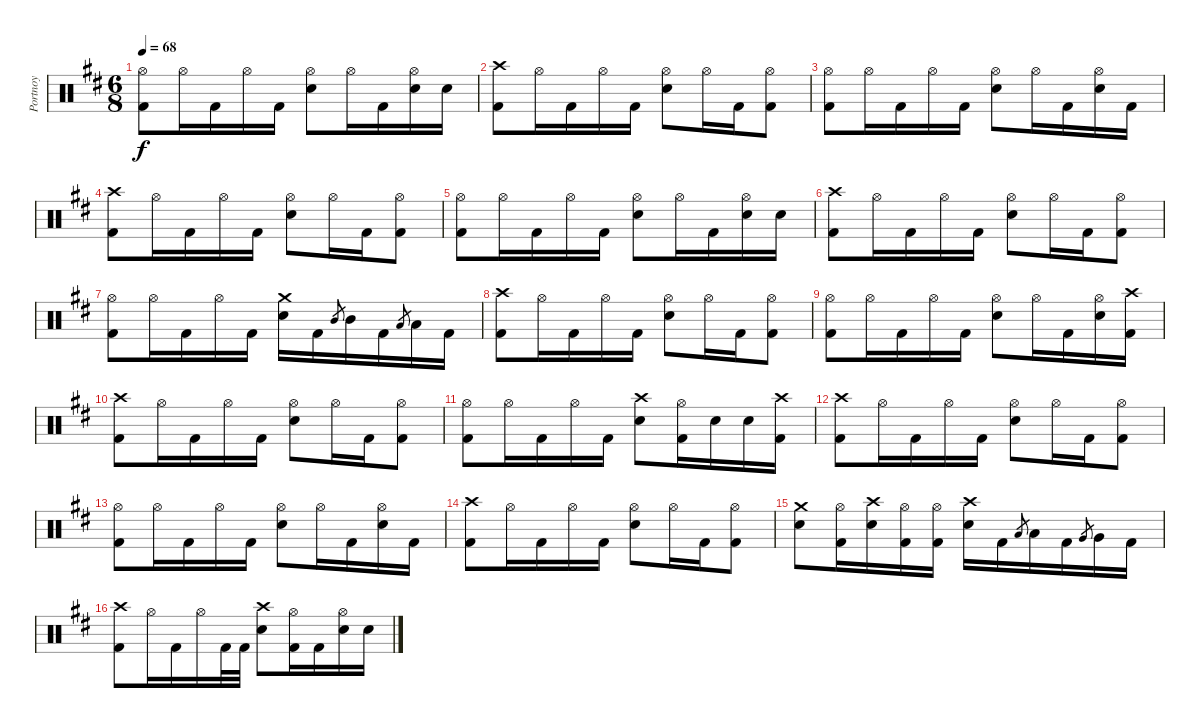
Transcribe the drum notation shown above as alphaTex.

\track ("Portnoy" "Portnoy") {instrument percussion}
\staff {score}
\articulation defaults
\ts (6 8)
\tempo 68
\clef neutral
\ks d
("Hi-Hat (open)" "Kick (hit) 2").8{dy f} "Hi-Hat (open)".16 "Kick (hit) 2".16 "Hi-Hat (open)".16 "Kick (hit) 2".16 ("Hi-Hat (open)" "Snare (hit) 2").8 "Hi-Hat (open)".16 "Kick (hit) 2".16 ("Hi-Hat (open)" "Snare (hit) 2").16 "Snare (hit) 2".16 |
("Crash high (hit)" "Kick (hit) 2").8 "Hi-Hat (open)".16 "Kick (hit) 2".16 "Hi-Hat (open)".16 "Kick (hit) 2".16 ("Hi-Hat (open)" "Snare (hit) 2").8 "Hi-Hat (open)".16 "Kick (hit) 2".16 ("Hi-Hat (open)" "Kick (hit) 2").8 |
("Hi-Hat (open)" "Kick (hit) 2").8 "Hi-Hat (open)".16 "Kick (hit) 2".16 "Hi-Hat (open)".16 "Kick (hit) 2".16 ("Hi-Hat (open)" "Snare (hit) 2").8 "Hi-Hat (open)".16 "Kick (hit) 2".16 ("Hi-Hat (open)" "Snare (hit) 2").16 "Kick (hit) 2".16 |
("Crash high (hit)" "Kick (hit) 2").8 "Hi-Hat (open)".16 "Kick (hit) 2".16 "Hi-Hat (open)".16 "Kick (hit) 2".16 ("Hi-Hat (open)" "Snare (hit) 2").8 "Hi-Hat (open)".16 "Kick (hit) 2".16 ("Hi-Hat (open)" "Kick (hit) 2").8 |
("Hi-Hat (open)" "Kick (hit) 2").8 "Hi-Hat (open)".16 "Kick (hit) 2".16 "Hi-Hat (open)".16 "Kick (hit) 2".16 ("Hi-Hat (open)" "Snare (hit) 2").8 "Hi-Hat (open)".16 "Kick (hit) 2".16 ("Hi-Hat (open)" "Snare (hit) 2").16 "Snare (hit) 2".16 |
("Crash high (hit)" "Kick (hit) 2").8 "Hi-Hat (open)".16 "Kick (hit) 2".16 "Hi-Hat (open)".16 "Kick (hit) 2".16 ("Hi-Hat (open)" "Snare (hit) 2").8 "Hi-Hat (open)".16 "Kick (hit) 2".16 ("Hi-Hat (open)" "Kick (hit) 2").8 |
("Hi-Hat (open)" "Kick (hit) 2").8 "Hi-Hat (open)".16 "Kick (hit) 2".16 "Hi-Hat (open)".16 "Kick (hit) 2".16 ("Crash medium (hit)" "Snare (hit) 2").16 "Kick (hit) 2".16 "Mid Tom (hit)".8{gr} "Mid Tom (hit)".16 "Kick (hit) 2".16 "Low Tom (hit)".8{gr} "Low Tom (hit)".16 "Kick (hit) 2".16 |
("Crash high (hit)" "Kick (hit) 2").8 "Hi-Hat (open)".16 "Kick (hit) 2".16 "Hi-Hat (open)".16 "Kick (hit) 2".16 ("Hi-Hat (open)" "Snare (hit) 2").8 "Hi-Hat (open)".16 "Kick (hit) 2".16 ("Hi-Hat (open)" "Kick (hit) 2").8 |
("Hi-Hat (open)" "Kick (hit) 2").8 "Hi-Hat (open)".16 "Kick (hit) 2".16 "Hi-Hat (open)".16 "Kick (hit) 2".16 ("Hi-Hat (open)" "Snare (hit) 2").8 "Hi-Hat (open)".16 "Kick (hit) 2".16 ("Hi-Hat (open)" "Snare (hit) 2").16 ("Kick (hit) 2" "Crash high (hit)").16 |
("Crash high (hit)" "Kick (hit) 2").8 "Hi-Hat (open)".16 "Kick (hit) 2".16 "Hi-Hat (open)".16 "Kick (hit) 2".16 ("Hi-Hat (open)" "Snare (hit) 2").8 "Hi-Hat (open)".16 "Kick (hit) 2".16 ("Hi-Hat (open)" "Kick (hit) 2").8 |
("Hi-Hat (open)" "Kick (hit) 2").8 "Hi-Hat (open)".16 "Kick (hit) 2".16 "Hi-Hat (open)".16 "Kick (hit) 2".16 ("Crash high (hit)" "Snare (hit) 2").8 ("Kick (hit) 2" "Hi-Hat (open)").16 "Snare (hit) 2".16 "Snare (hit) 2".16 ("Kick (hit) 2" "Crash high (hit)").16 |
("Crash high (hit)" "Kick (hit) 2").8 "Hi-Hat (open)".16 "Kick (hit) 2".16 "Hi-Hat (open)".16 "Kick (hit) 2".16 ("Hi-Hat (open)" "Snare (hit) 2").8 "Hi-Hat (open)".16 "Kick (hit) 2".16 ("Hi-Hat (open)" "Kick (hit) 2").8 |
("Hi-Hat (open)" "Kick (hit) 2").8 "Hi-Hat (open)".16 "Kick (hit) 2".16 "Hi-Hat (open)".16 "Kick (hit) 2".16 ("Hi-Hat (open)" "Snare (hit) 2").8 "Hi-Hat (open)".16 "Kick (hit) 2".16 ("Hi-Hat (open)" "Snare (hit) 2").16 "Kick (hit) 2".16 |
("Crash high (hit)" "Kick (hit) 2").8 "Hi-Hat (open)".16 "Kick (hit) 2".16 "Hi-Hat (open)".16 "Kick (hit) 2".16 ("Hi-Hat (open)" "Snare (hit) 2").8 "Hi-Hat (open)".16 "Kick (hit) 2".16 ("Hi-Hat (open)" "Kick (hit) 2").8 |
("Crash medium (hit)" "Snare (hit) 2").8 ("Hi-Hat (open)" "Kick (hit) 2").16 ("Snare (hit) 2" "Crash high (hit)").16 ("Hi-Hat (open)" "Kick (hit) 2").16 ("Kick (hit) 2" "Hi-Hat (open)").16 ("Crash high (hit)" "Snare (hit) 2").16 "Kick (hit) 2".16 "Low Tom (hit)".8{gr} "Low Tom (hit)".16 "Kick (hit) 2".16 "Very Low Tom (hit)".8{gr} "Very Low Tom (hit)".16 "Kick (hit) 2".16 |
("Crash high (hit)" "Kick (hit) 2").8 "Hi-Hat (open)".16 "Kick (hit) 2".16 "Hi-Hat (open)".16 "Kick (hit) 2".32 "Kick (hit) 2".32 ("Crash high (hit)" "Snare (hit) 2").8 ("Hi-Hat (open)" "Kick (hit) 2").16 "Kick (hit) 2".16 ("Hi-Hat (open)" "Snare (hit) 2").16 "Snare (hit) 2".16
